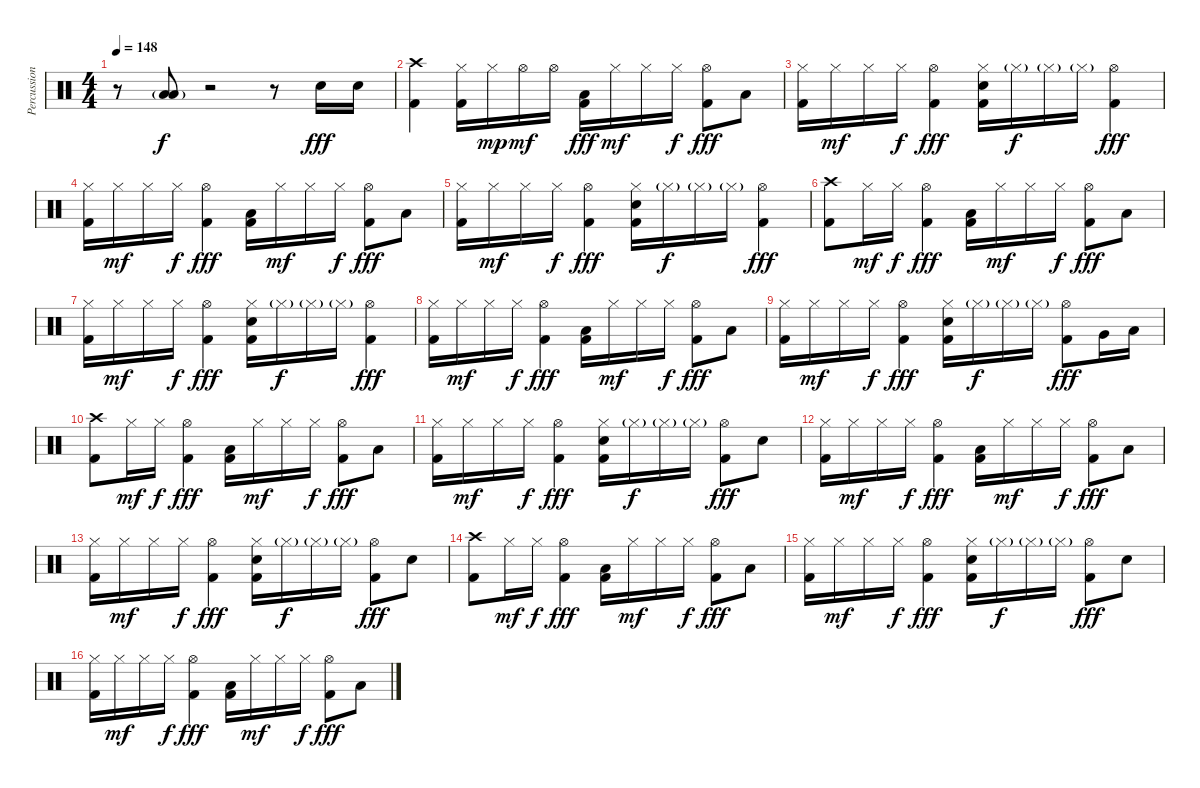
\track ("Percussion" "Percussion") {instrument percussion}
\staff {score}
\articulation defaults
\ts (4 4)
\tempo 148
\clef neutral
\ks c
r.8{dy fff} ("Low Floor Tom (hit)"{g} "Low Floor Tom (hit)"{g}).8{bd 480 dy f} r.2 r.8 "Electric Snare (hit)".16{dy fff} "Electric Snare (hit)".16 |
("Crash high (hit)" "Kick (hit) 2").4 ("Hi-Hat (closed)" "Kick (hit) 2").16 "Hi-Hat (closed)".16{dy mp} "Hi-Hat (open)".16{dy mf} "Hi-Hat (open)".16 ("Kick (hit) 2" "Low Tom (hit)").16{dy fff} "Hi-Hat (closed)".16{dy mf} "Hi-Hat (closed)".16 "Hi-Hat (closed)".16{dy f} ("Hi-Hat (open)" "Kick (hit) 2").8{dy fff} "Low Tom (hit)".8 |
("Hi-Hat (closed)" "Kick (hit) 2").16 "Hi-Hat (closed)".16{dy mf} "Hi-Hat (closed)".16 "Hi-Hat (closed)".16{dy f} ("Hi-Hat (open)" "Kick (hit) 2").4{dy fff} ("Hi-Hat (closed)" "Kick (hit) 2" "Electric Snare (hit)").16 "Hi-Hat (closed)"{g}.16{dy f} "Hi-Hat (closed)"{g}.16 "Hi-Hat (closed)"{g}.16 ("Hi-Hat (open)" "Kick (hit) 2").4{dy fff} |
("Hi-Hat (closed)" "Kick (hit) 2").16 "Hi-Hat (closed)".16{dy mf} "Hi-Hat (closed)".16 "Hi-Hat (closed)".16{dy f} ("Hi-Hat (open)" "Kick (hit) 2").4{dy fff} ("Kick (hit) 2" "Low Tom (hit)").16 "Hi-Hat (closed)".16{dy mf} "Hi-Hat (closed)".16 "Hi-Hat (closed)".16{dy f} ("Hi-Hat (open)" "Kick (hit) 2").8{dy fff} "Low Tom (hit)".8 |
("Hi-Hat (closed)" "Kick (hit) 2").16 "Hi-Hat (closed)".16{dy mf} "Hi-Hat (closed)".16 "Hi-Hat (closed)".16{dy f} ("Hi-Hat (open)" "Kick (hit) 2").4{dy fff} ("Hi-Hat (closed)" "Kick (hit) 2" "Electric Snare (hit)").16 "Hi-Hat (closed)"{g}.16{dy f} "Hi-Hat (closed)"{g}.16 "Hi-Hat (closed)"{g}.16 ("Hi-Hat (open)" "Kick (hit) 2").4{dy fff} |
("Crash high (hit)" "Kick (hit) 2").8 "Hi-Hat (closed)".16{dy mf} "Hi-Hat (closed)".16{dy f} ("Hi-Hat (open)" "Kick (hit) 2").4{dy fff} ("Kick (hit) 2" "Low Tom (hit)").16 "Hi-Hat (closed)".16{dy mf} "Hi-Hat (closed)".16 "Hi-Hat (closed)".16{dy f} ("Hi-Hat (open)" "Kick (hit) 2").8{dy fff} "Low Tom (hit)".8 |
("Hi-Hat (closed)" "Kick (hit) 2").16 "Hi-Hat (closed)".16{dy mf} "Hi-Hat (closed)".16 "Hi-Hat (closed)".16{dy f} ("Hi-Hat (open)" "Kick (hit) 2").4{dy fff} ("Hi-Hat (closed)" "Kick (hit) 2" "Electric Snare (hit)").16 "Hi-Hat (closed)"{g}.16{dy f} "Hi-Hat (closed)"{g}.16 "Hi-Hat (closed)"{g}.16 ("Hi-Hat (open)" "Kick (hit) 2").4{dy fff} |
("Hi-Hat (closed)" "Kick (hit) 2").16 "Hi-Hat (closed)".16{dy mf} "Hi-Hat (closed)".16 "Hi-Hat (closed)".16{dy f} ("Hi-Hat (open)" "Kick (hit) 2").4{dy fff} ("Kick (hit) 2" "Low Tom (hit)").16 "Hi-Hat (closed)".16{dy mf} "Hi-Hat (closed)".16 "Hi-Hat (closed)".16{dy f} ("Hi-Hat (open)" "Kick (hit) 2").8{dy fff} "Low Tom (hit)".8 |
("Hi-Hat (closed)" "Kick (hit) 2").16 "Hi-Hat (closed)".16{dy mf} "Hi-Hat (closed)".16 "Hi-Hat (closed)".16{dy f} ("Hi-Hat (open)" "Kick (hit) 2").4{dy fff} ("Hi-Hat (closed)" "Kick (hit) 2" "Electric Snare (hit)").16 "Hi-Hat (closed)"{g}.16{dy f} "Hi-Hat (closed)"{g}.16 "Hi-Hat (closed)"{g}.16 ("Hi-Hat (open)" "Kick (hit) 2").8{dy fff} "Very Low Tom (hit)".16 "Low Floor Tom (hit)".16 |
("Crash high (hit)" "Kick (hit) 2").8 "Hi-Hat (closed)".16{dy mf} "Hi-Hat (closed)".16{dy f} ("Hi-Hat (open)" "Kick (hit) 2").4{dy fff} ("Kick (hit) 2" "Low Tom (hit)").16 "Hi-Hat (closed)".16{dy mf} "Hi-Hat (closed)".16 "Hi-Hat (closed)".16{dy f} ("Hi-Hat (open)" "Kick (hit) 2").8{dy fff} "Low Tom (hit)".8 |
("Hi-Hat (closed)" "Kick (hit) 2").16 "Hi-Hat (closed)".16{dy mf} "Hi-Hat (closed)".16 "Hi-Hat (closed)".16{dy f} ("Hi-Hat (open)" "Kick (hit) 2").4{dy fff} ("Hi-Hat (closed)" "Kick (hit) 2" "Electric Snare (hit)").16 "Hi-Hat (closed)"{g}.16{dy f} "Hi-Hat (closed)"{g}.16 "Hi-Hat (closed)"{g}.16 ("Hi-Hat (open)" "Kick (hit) 2").8{dy fff} "Electric Snare (hit)".8 |
("Hi-Hat (closed)" "Kick (hit) 2").16 "Hi-Hat (closed)".16{dy mf} "Hi-Hat (closed)".16 "Hi-Hat (closed)".16{dy f} ("Hi-Hat (open)" "Kick (hit) 2").4{dy fff} ("Kick (hit) 2" "Low Tom (hit)").16 "Hi-Hat (closed)".16{dy mf} "Hi-Hat (closed)".16 "Hi-Hat (closed)".16{dy f} ("Hi-Hat (open)" "Kick (hit) 2").8{dy fff} "Low Tom (hit)".8 |
("Hi-Hat (closed)" "Kick (hit) 2").16 "Hi-Hat (closed)".16{dy mf} "Hi-Hat (closed)".16 "Hi-Hat (closed)".16{dy f} ("Hi-Hat (open)" "Kick (hit) 2").4{dy fff} ("Hi-Hat (closed)" "Kick (hit) 2" "Electric Snare (hit)").16 "Hi-Hat (closed)"{g}.16{dy f} "Hi-Hat (closed)"{g}.16 "Hi-Hat (closed)"{g}.16 ("Hi-Hat (open)" "Kick (hit) 2").8{dy fff} "Electric Snare (hit)".8 |
("Crash high (hit)" "Kick (hit) 2").8 "Hi-Hat (closed)".16{dy mf} "Hi-Hat (closed)".16{dy f} ("Hi-Hat (open)" "Kick (hit) 2").4{dy fff} ("Kick (hit) 2" "Low Tom (hit)").16 "Hi-Hat (closed)".16{dy mf} "Hi-Hat (closed)".16 "Hi-Hat (closed)".16{dy f} ("Hi-Hat (open)" "Kick (hit) 2").8{dy fff} "Low Tom (hit)".8 |
("Hi-Hat (closed)" "Kick (hit) 2").16 "Hi-Hat (closed)".16{dy mf} "Hi-Hat (closed)".16 "Hi-Hat (closed)".16{dy f} ("Hi-Hat (open)" "Kick (hit) 2").4{dy fff} ("Hi-Hat (closed)" "Kick (hit) 2" "Electric Snare (hit)").16 "Hi-Hat (closed)"{g}.16{dy f} "Hi-Hat (closed)"{g}.16 "Hi-Hat (closed)"{g}.16 ("Hi-Hat (open)" "Kick (hit) 2").8{dy fff} "Electric Snare (hit)".8 |
("Hi-Hat (closed)" "Kick (hit) 2").16 "Hi-Hat (closed)".16{dy mf} "Hi-Hat (closed)".16 "Hi-Hat (closed)".16{dy f} ("Hi-Hat (open)" "Kick (hit) 2").4{dy fff} ("Kick (hit) 2" "Low Tom (hit)").16 "Hi-Hat (closed)".16{dy mf} "Hi-Hat (closed)".16 "Hi-Hat (closed)".16{dy f} ("Hi-Hat (open)" "Kick (hit) 2").8{dy fff} "Low Tom (hit)".8
